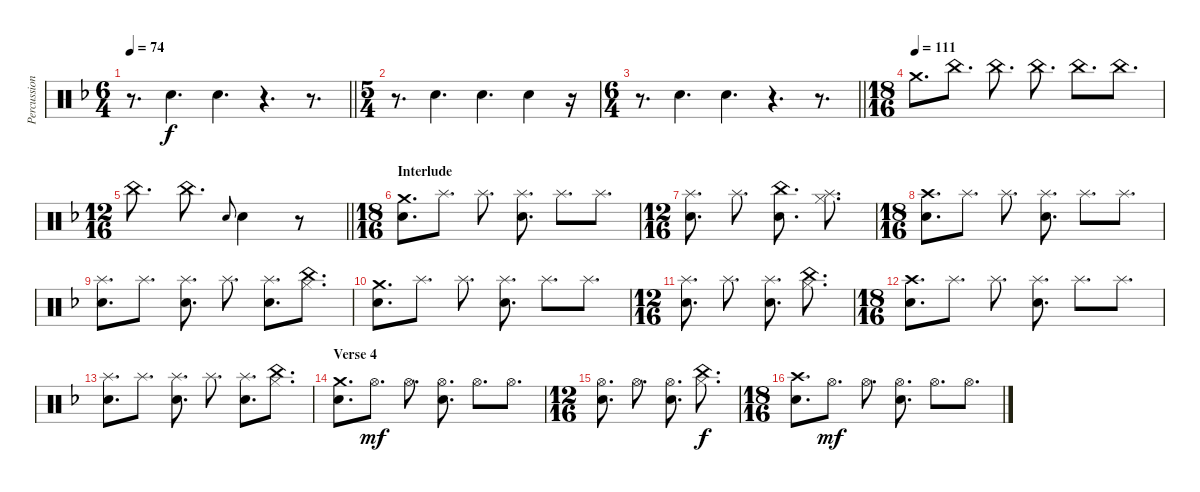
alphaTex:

\track ("Percussion" "Percussion") {instrument percussion}
\staff {score}
\articulation defaults
\ts (6 4)
\tempo 74
\clef neutral
\barLineRight lightlight
\ks f
r.8{d dy f} "Electric Snare (hit)".4{d} "Electric Snare (hit)".4{d} r.4{d} r.8{d} |
\ts (5 4)
r.8{d} "Electric Snare (hit)".4{d} "Electric Snare (hit)".4{d} "Electric Snare (hit)".4 r.16 |
\ts (6 4)
\barLineRight lightlight
r.8{d} "Electric Snare (hit)".4{d} "Electric Snare (hit)".4{d} r.4{d} r.8{d} |
\ts (18 16)
\tempo (111)
"Crash medium (hit)".8{d} "China (hit)".8{d} "China (hit)".8{d} "China (hit)".8{d} "China (hit)".8{d} "China (hit)".8{d} |
\ts (12 16)
\barLineRight lightlight "China (hit)".8{d} "China (hit)".8{d} "Electric Snare (hit)".8{gr onbeat} "Electric Snare (hit)".4
r.8 |
\ts (18 16)
\section ("" "Interlude")
("Crash medium (hit)" "Electric Snare (hit)").8{d} "Splash (hit)".8{d} "Splash (hit)".8{d} ("Splash (hit)" "Electric Snare (hit)").8{d} "Splash (hit)".8{d} "Splash (hit)".8{d} |
\ts (12 16)
("Splash (hit)" "Electric Snare (hit)").8{d} "Splash (hit)".8{d} ("China (hit)" "Electric Snare (hit)").8{d} ("Splash (hit)" "Hi-Hat (closed)").8{d} |
\ts (18 16)
("Crash high (hit)" "Electric Snare (hit)").8{d} "Splash (hit)".8{d} "Splash (hit)".8{d} ("Splash (hit)" "Electric Snare (hit)").8{d} "Splash (hit)".8{d} "Splash (hit)".8{d} |
("Splash (hit)" "Electric Snare (hit)").8{d} "Splash (hit)".8{d} ("Splash (hit)" "Electric Snare (hit)").8{d} "Splash (hit)".8{d} ("Splash (hit)" "Electric Snare (hit)").8{d} ("China (hit)" "Hi-Hat (closed)").8{d} |
("Crash medium (hit)" "Electric Snare (hit)").8{d} "Splash (hit)".8{d} "Splash (hit)".8{d} ("Splash (hit)" "Electric Snare (hit)").8{d} "Splash (hit)".8{d} "Splash (hit)".8{d} |
\ts (12 16)
("Splash (hit)" "Electric Snare (hit)").8{d} "Splash (hit)".8{d} ("Splash (hit)" "Electric Snare (hit)").8{d} ("China (hit)" "Hi-Hat (closed)").8{d} |
\ts (18 16)
("Crash high (hit)" "Electric Snare (hit)").8{d} "Splash (hit)".8{d} "Splash (hit)".8{d} ("Splash (hit)" "Electric Snare (hit)").8{d} "Splash (hit)".8{d} "Splash (hit)".8{d} |
("Splash (hit)" "Electric Snare (hit)").8{d} "Splash (hit)".8{d} ("Splash (hit)" "Electric Snare (hit)").8{d} "Splash (hit)".8{d} ("Splash (hit)" "Electric Snare (hit)").8{d} ("China (hit)" "Hi-Hat (closed)").8{d} |
\section ("" "Verse 4")
("Crash medium (hit)" "Electric Snare (hit)").8{d} "Hi-Hat (open)".8{d dy mf} "Hi-Hat (open)".8{d} ("Hi-Hat (open)" "Electric Snare (hit)").8{d} "Hi-Hat (open)".8{d} "Hi-Hat (open)".8{d} |
\ts (12 16)
("Hi-Hat (open)" "Electric Snare (hit)").8{d} "Hi-Hat (open)".8{d} ("Hi-Hat (open)" "Electric Snare (hit)").8{d} ("China (hit)" "Hi-Hat (closed)").8{d dy f} |
\ts (18 16)
("Crash high (hit)" "Electric Snare (hit)").8{d} "Hi-Hat (open)".8{d dy mf} "Hi-Hat (open)".8{d} ("Hi-Hat (open)" "Electric Snare (hit)").8{d} "Hi-Hat (open)".8{d} "Hi-Hat (open)".8{d}
